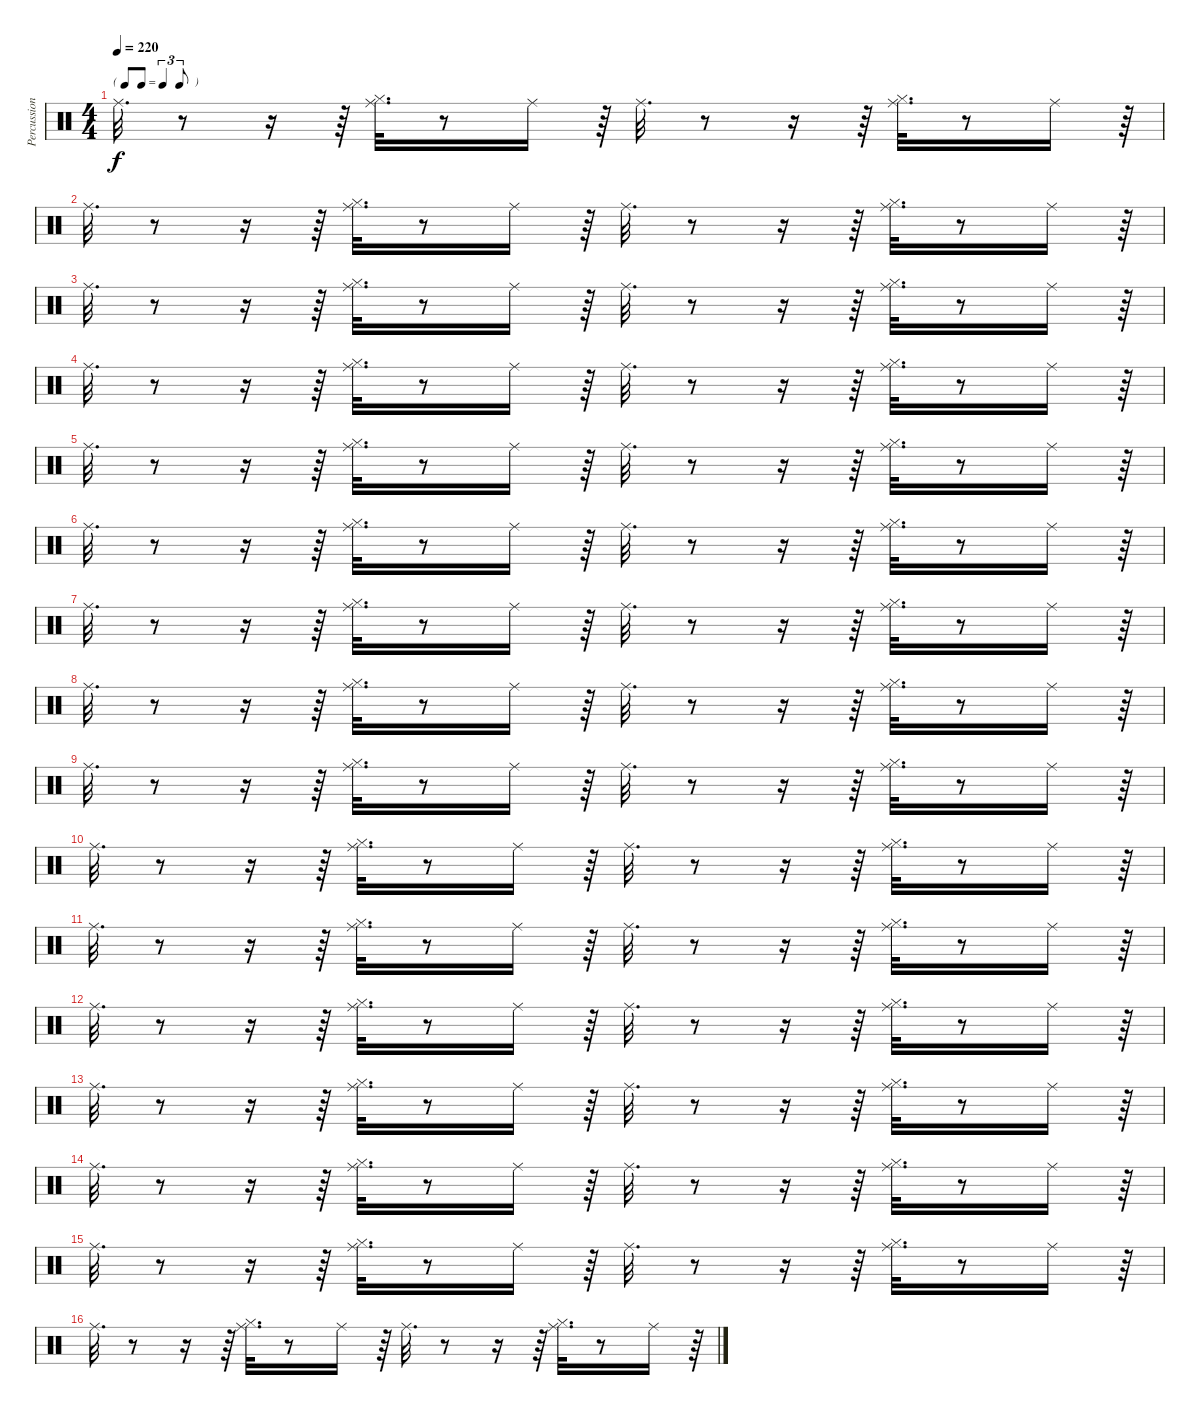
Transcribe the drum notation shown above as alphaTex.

\track ("Percussions" "Percussion") {instrument percussion}
\staff {score}
\articulation defaults
\ts (4 4)
\tf triplet8th
\tempo 220
\clef neutral
\ks c "Ride (middle)".32{d dy f}
r.8 r.16 r.64 ("Hi-Hat (closed)" "Ride (middle)").32{d} r.8 "Ride (middle)".16 r.64 "Ride (middle)".32{d} r.8 r.16 r.64 ("Hi-Hat (closed)" "Ride (middle)").32{d} r.8 "Ride (middle)".16 r.64 |
"Ride (middle)".32{d} r.8 r.16 r.64 ("Hi-Hat (closed)" "Ride (middle)").32{d} r.8 "Ride (middle)".16 r.64 "Ride (middle)".32{d} r.8 r.16 r.64 ("Hi-Hat (closed)" "Ride (middle)").32{d} r.8 "Ride (middle)".16 r.64 |
"Ride (middle)".32{d} r.8 r.16 r.64 ("Hi-Hat (closed)" "Ride (middle)").32{d} r.8 "Ride (middle)".16 r.64 "Ride (middle)".32{d} r.8 r.16 r.64 ("Hi-Hat (closed)" "Ride (middle)").32{d} r.8 "Ride (middle)".16 r.64 |
"Ride (middle)".32{d} r.8 r.16 r.64 ("Hi-Hat (closed)" "Ride (middle)").32{d} r.8 "Ride (middle)".16 r.64 "Ride (middle)".32{d} r.8 r.16 r.64 ("Hi-Hat (closed)" "Ride (middle)").32{d} r.8 "Ride (middle)".16 r.64 |
"Ride (middle)".32{d} r.8 r.16 r.64 ("Hi-Hat (closed)" "Ride (middle)").32{d} r.8 "Ride (middle)".16 r.64 "Ride (middle)".32{d} r.8 r.16 r.64 ("Hi-Hat (closed)" "Ride (middle)").32{d} r.8 "Ride (middle)".16 r.64 |
"Ride (middle)".32{d} r.8 r.16 r.64 ("Hi-Hat (closed)" "Ride (middle)").32{d} r.8 "Ride (middle)".16 r.64 "Ride (middle)".32{d} r.8 r.16 r.64 ("Hi-Hat (closed)" "Ride (middle)").32{d} r.8 "Ride (middle)".16 r.64 |
"Ride (middle)".32{d} r.8 r.16 r.64 ("Hi-Hat (closed)" "Ride (middle)").32{d} r.8 "Ride (middle)".16 r.64 "Ride (middle)".32{d} r.8 r.16 r.64 ("Hi-Hat (closed)" "Ride (middle)").32{d} r.8 "Ride (middle)".16 r.64 |
"Ride (middle)".32{d} r.8 r.16 r.64 ("Hi-Hat (closed)" "Ride (middle)").32{d} r.8 "Ride (middle)".16 r.64 "Ride (middle)".32{d} r.8 r.16 r.64 ("Hi-Hat (closed)" "Ride (middle)").32{d} r.8 "Ride (middle)".16 r.64 |
"Ride (middle)".32{d} r.8 r.16 r.64 ("Hi-Hat (closed)" "Ride (middle)").32{d} r.8 "Ride (middle)".16 r.64 "Ride (middle)".32{d} r.8 r.16 r.64 ("Hi-Hat (closed)" "Ride (middle)").32{d} r.8 "Ride (middle)".16 r.64 |
"Ride (middle)".32{d} r.8 r.16 r.64 ("Hi-Hat (closed)" "Ride (middle)").32{d} r.8 "Ride (middle)".16 r.64 "Ride (middle)".32{d} r.8 r.16 r.64 ("Hi-Hat (closed)" "Ride (middle)").32{d} r.8 "Ride (middle)".16 r.64 |
"Ride (middle)".32{d} r.8 r.16 r.64 ("Hi-Hat (closed)" "Ride (middle)").32{d} r.8 "Ride (middle)".16 r.64 "Ride (middle)".32{d} r.8 r.16 r.64 ("Hi-Hat (closed)" "Ride (middle)").32{d} r.8 "Ride (middle)".16 r.64 |
"Ride (middle)".32{d} r.8 r.16 r.64 ("Hi-Hat (closed)" "Ride (middle)").32{d} r.8 "Ride (middle)".16 r.64 "Ride (middle)".32{d} r.8 r.16 r.64 ("Hi-Hat (closed)" "Ride (middle)").32{d} r.8 "Ride (middle)".16 r.64 |
"Ride (middle)".32{d} r.8 r.16 r.64 ("Hi-Hat (closed)" "Ride (middle)").32{d} r.8 "Ride (middle)".16 r.64 "Ride (middle)".32{d} r.8 r.16 r.64 ("Hi-Hat (closed)" "Ride (middle)").32{d} r.8 "Ride (middle)".16 r.64 |
"Ride (middle)".32{d} r.8 r.16 r.64 ("Hi-Hat (closed)" "Ride (middle)").32{d} r.8 "Ride (middle)".16 r.64 "Ride (middle)".32{d} r.8 r.16 r.64 ("Hi-Hat (closed)" "Ride (middle)").32{d} r.8 "Ride (middle)".16 r.64 |
"Ride (middle)".32{d} r.8 r.16 r.64 ("Hi-Hat (closed)" "Ride (middle)").32{d} r.8 "Ride (middle)".16 r.64 "Ride (middle)".32{d} r.8 r.16 r.64 ("Hi-Hat (closed)" "Ride (middle)").32{d} r.8 "Ride (middle)".16 r.64 |
"Ride (middle)".32{d} r.8 r.16 r.64 ("Hi-Hat (closed)" "Ride (middle)").32{d} r.8 "Ride (middle)".16 r.64 "Ride (middle)".32{d} r.8 r.16 r.64 ("Hi-Hat (closed)" "Ride (middle)").32{d} r.8 "Ride (middle)".16 r.64
